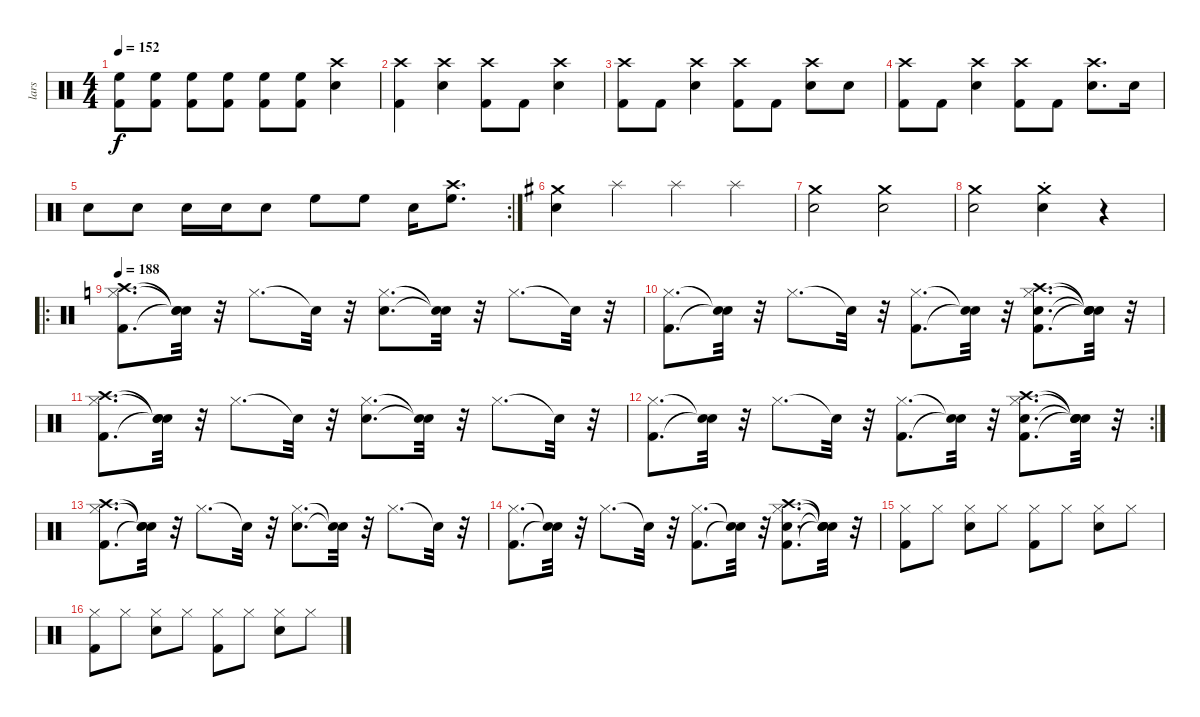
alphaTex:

\track ("lars" "lars") {instrument percussion}
\staff {score}
\articulation defaults
\ts (4 4)
\tempo 152
\clef neutral
\ks c
("Kick (hit) 2" "High Floor Tom (hit)").8{dy f} ("Kick (hit) 2" "High Floor Tom (hit)").8 ("Kick (hit) 2" "High Floor Tom (hit)").8 ("Kick (hit) 2" "High Floor Tom (hit)").8 ("Kick (hit) 2" "High Floor Tom (hit)").8 ("Kick (hit) 2" "High Floor Tom (hit)").8 ("Crash high (hit)" "Snare (hit) 2").4 |
("Crash high (hit)" "Kick (hit) 2").4 ("Crash high (hit)" "Snare (hit) 2").4 ("Crash high (hit)" "Kick (hit) 2").8 "Kick (hit) 2".8 ("Crash high (hit)" "Snare (hit) 2").4 |
("Crash high (hit)" "Kick (hit) 2").8 "Kick (hit) 2".8 ("Crash high (hit)" "Snare (hit) 2").4 ("Crash high (hit)" "Kick (hit) 2").8 "Kick (hit) 2".8 ("Crash high (hit)" "Snare (hit) 2").8 "Snare (hit) 2".8 |
("Crash high (hit)" "Kick (hit) 2").8 "Kick (hit) 2".8 ("Crash high (hit)" "Snare (hit) 2").4 ("Crash high (hit)" "Kick (hit) 2").8 "Kick (hit) 2".8 ("Crash high (hit)" "Snare (hit) 2").8{d} "Snare (hit) 2".16 |
\rc 2 "Snare (hit) 2".8 "Snare (hit) 2".8 "Snare (hit) 2".16 "Snare (hit) 2".16 "Snare (hit) 2".8 "High Floor Tom (hit)".8 "High Floor Tom (hit)".8 "Snare (hit) 2".16
("High Floor Tom (hit)" "Crash high (hit)").8{d} |
\ks g
("Crash medium (hit)" "Snare (hit) 2").4 "Splash (hit)".4 "Splash (hit)".4 "Splash (hit)".4 |
("Crash medium (hit)" "Snare (hit) 2").2 ("Snare (hit) 2" "Crash medium (hit)").2 |
("Crash medium (hit)" "Snare (hit) 2").2 ("Crash medium (hit)"{st} "Snare (hit) 2").4 r.4 |
\ro
\tempo 188
\ks c
("Kick (hit) 2" "Hi-Hat (closed)" "Crash high (hit)").8{d} ("Snare (hit)"{t} "Snare (hit)"{t} "Snare (hit)"{t}).32 r.32 "Hi-Hat (closed)".8{d} "Snare (hit)"{t}.32 r.32 ("Snare (hit) 2" "Hi-Hat (closed)").8{d} ("Snare (hit)"{t} "Snare (hit)"{t}).32 r.32 "Hi-Hat (closed)".8{d} "Snare (hit)"{t}.32 r.32 |
("Kick (hit) 2" "Hi-Hat (closed)").8{d} ("Snare (hit)"{t} "Snare (hit)"{t}).32 r.32 "Hi-Hat (closed)".8{d} "Snare (hit)"{t}.32 r.32 ("Kick (hit) 2" "Hi-Hat (closed)").8{d} ("Snare (hit)"{t} "Snare (hit)"{t}).32 r.32 ("Kick (hit) 2" "Snare (hit) 2" "Hi-Hat (closed)" "Crash high (hit)").8{d} ("Snare (hit)"{t} "Snare (hit)"{t} "Snare (hit)"{t} "Snare (hit)"{t}).32 r.32 |
("Kick (hit) 2" "Hi-Hat (closed)" "Crash high (hit)").8{d} ("Snare (hit)"{t} "Snare (hit)"{t} "Snare (hit)"{t}).32 r.32 "Hi-Hat (closed)".8{d} "Snare (hit)"{t}.32 r.32 ("Snare (hit) 2" "Hi-Hat (closed)").8{d} ("Snare (hit)"{t} "Snare (hit)"{t}).32 r.32 "Hi-Hat (closed)".8{d} "Snare (hit)"{t}.32 r.32 |
\rc 2
("Kick (hit) 2" "Hi-Hat (closed)").8{d} ("Snare (hit)"{t} "Snare (hit)"{t}).32 r.32 "Hi-Hat (closed)".8{d} "Snare (hit)"{t}.32 r.32 ("Kick (hit) 2" "Hi-Hat (closed)").8{d} ("Snare (hit)"{t} "Snare (hit)"{t}).32 r.32 ("Kick (hit) 2" "Snare (hit) 2" "Hi-Hat (closed)" "Crash high (hit)").8{d} ("Snare (hit)"{t} "Snare (hit)"{t} "Snare (hit)"{t} "Snare (hit)"{t}).32 r.32 |
("Kick (hit) 2" "Hi-Hat (closed)" "Crash high (hit)").8{d} ("Snare (hit)"{t} "Snare (hit)"{t} "Snare (hit)"{t}).32 r.32 "Hi-Hat (closed)".8{d} "Snare (hit)"{t}.32 r.32 ("Snare (hit) 2" "Hi-Hat (closed)").8{d} ("Snare (hit)"{t} "Snare (hit)"{t}).32 r.32 "Hi-Hat (closed)".8{d} "Snare (hit)"{t}.32 r.32 |
("Kick (hit) 2" "Hi-Hat (closed)").8{d} ("Snare (hit)"{t} "Snare (hit)"{t}).32 r.32 "Hi-Hat (closed)".8{d} "Snare (hit)"{t}.32 r.32 ("Kick (hit) 2" "Hi-Hat (closed)").8{d} ("Snare (hit)"{t} "Snare (hit)"{t}).32 r.32 ("Kick (hit) 2" "Snare (hit) 2" "Hi-Hat (closed)" "Crash high (hit)").8{d} ("Snare (hit)"{t} "Snare (hit)"{t} "Snare (hit)"{t} "Snare (hit)"{t}).32 r.32 |
("Kick (hit) 2" "Hi-Hat (closed)").8 "Hi-Hat (closed)".8 ("Snare (hit) 2" "Hi-Hat (closed)").8 "Hi-Hat (closed)".8 ("Kick (hit) 2" "Hi-Hat (closed)").8 "Hi-Hat (closed)".8 ("Snare (hit) 2" "Hi-Hat (closed)").8 "Hi-Hat (closed)".8 |
("Kick (hit) 2" "Hi-Hat (closed)").8 "Hi-Hat (closed)".8 ("Snare (hit) 2" "Hi-Hat (closed)").8 "Hi-Hat (closed)".8 ("Kick (hit) 2" "Hi-Hat (closed)").8 "Hi-Hat (closed)".8 ("Snare (hit) 2" "Hi-Hat (closed)").8 "Hi-Hat (closed)".8
